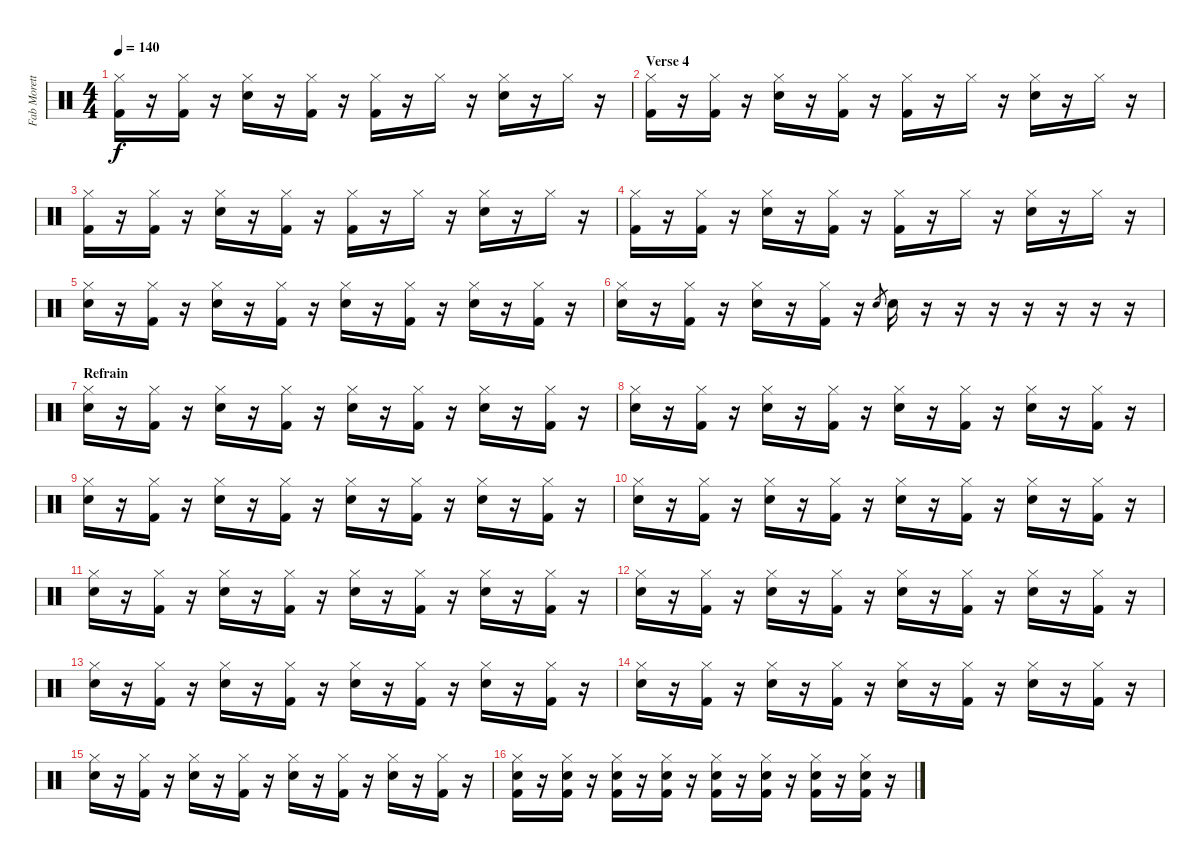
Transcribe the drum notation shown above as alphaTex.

\track ("Fab Moretti - Drums" "Fab Morett") {instrument percussion}
\staff {score}
\articulation defaults
\ts (4 4)
\tempo 140
\clef neutral
\ks c
("Hi-Hat (closed)" "Kick (hit) 2").16{dy f} r.16 ("Hi-Hat (closed)" "Kick (hit) 2").16 r.16 ("Hi-Hat (closed)" "Snare (hit) 2").16 r.16 ("Hi-Hat (closed)" "Kick (hit) 2").16 r.16 ("Hi-Hat (closed)" "Kick (hit) 2").16 r.16 "Hi-Hat (closed)".16 r.16 ("Hi-Hat (closed)" "Snare (hit) 2").16 r.16 "Hi-Hat (closed)".16 r.16 |
\section ("" "Verse 4")
("Hi-Hat (closed)" "Kick (hit) 2").16 r.16 ("Hi-Hat (closed)" "Kick (hit) 2").16 r.16 ("Hi-Hat (closed)" "Snare (hit) 2").16 r.16 ("Hi-Hat (closed)" "Kick (hit) 2").16 r.16 ("Hi-Hat (closed)" "Kick (hit) 2").16 r.16 "Hi-Hat (closed)".16 r.16 ("Hi-Hat (closed)" "Snare (hit) 2").16 r.16 "Hi-Hat (closed)".16 r.16 |
("Hi-Hat (closed)" "Kick (hit) 2").16 r.16 ("Hi-Hat (closed)" "Kick (hit) 2").16 r.16 ("Hi-Hat (closed)" "Snare (hit) 2").16 r.16 ("Hi-Hat (closed)" "Kick (hit) 2").16 r.16 ("Hi-Hat (closed)" "Kick (hit) 2").16 r.16 "Hi-Hat (closed)".16 r.16 ("Hi-Hat (closed)" "Snare (hit) 2").16 r.16 "Hi-Hat (closed)".16 r.16 |
("Hi-Hat (closed)" "Kick (hit) 2").16 r.16 ("Hi-Hat (closed)" "Kick (hit) 2").16 r.16 ("Hi-Hat (closed)" "Snare (hit) 2").16 r.16 ("Hi-Hat (closed)" "Kick (hit) 2").16 r.16 ("Hi-Hat (closed)" "Kick (hit) 2").16 r.16 "Hi-Hat (closed)".16 r.16 ("Hi-Hat (closed)" "Snare (hit) 2").16 r.16 "Hi-Hat (closed)".16 r.16 |
("Hi-Hat (closed)" "Snare (hit) 2").16 r.16 ("Hi-Hat (closed)" "Kick (hit) 2").16 r.16 ("Hi-Hat (closed)" "Snare (hit) 2").16 r.16 ("Hi-Hat (closed)" "Kick (hit) 2").16 r.16 ("Hi-Hat (closed)" "Snare (hit) 2").16 r.16 ("Hi-Hat (closed)" "Kick (hit) 2").16 r.16 ("Hi-Hat (closed)" "Snare (hit) 2").16 r.16 ("Hi-Hat (closed)" "Kick (hit) 2").16 r.16 |
("Hi-Hat (closed)" "Snare (hit) 2").16 r.16 ("Hi-Hat (closed)" "Kick (hit) 2").16 r.16 ("Hi-Hat (closed)" "Snare (hit) 2").16 r.16 ("Hi-Hat (closed)" "Kick (hit) 2").16 r.16 "Snare (hit) 2".8{gr} "Snare (hit) 2".16 r.16 r.16 r.16 r.16 r.16 r.16 r.16 |
\section ("" "Refrain")
("Hi-Hat (closed)" "Snare (hit) 2").16 r.16 ("Hi-Hat (closed)" "Kick (hit) 2").16 r.16 ("Hi-Hat (closed)" "Snare (hit) 2").16 r.16 ("Hi-Hat (closed)" "Kick (hit) 2").16 r.16 ("Hi-Hat (closed)" "Snare (hit) 2").16 r.16 ("Hi-Hat (closed)" "Kick (hit) 2").16 r.16 ("Hi-Hat (closed)" "Snare (hit) 2").16 r.16 ("Hi-Hat (closed)" "Kick (hit) 2").16 r.16 |
("Hi-Hat (closed)" "Snare (hit) 2").16 r.16 ("Hi-Hat (closed)" "Kick (hit) 2").16 r.16 ("Hi-Hat (closed)" "Snare (hit) 2").16 r.16 ("Hi-Hat (closed)" "Kick (hit) 2").16 r.16 ("Hi-Hat (closed)" "Snare (hit) 2").16 r.16 ("Hi-Hat (closed)" "Kick (hit) 2").16 r.16 ("Hi-Hat (closed)" "Snare (hit) 2").16 r.16 ("Hi-Hat (closed)" "Kick (hit) 2").16 r.16 |
("Hi-Hat (closed)" "Snare (hit) 2").16 r.16 ("Hi-Hat (closed)" "Kick (hit) 2").16 r.16 ("Hi-Hat (closed)" "Snare (hit) 2").16 r.16 ("Hi-Hat (closed)" "Kick (hit) 2").16 r.16 ("Hi-Hat (closed)" "Snare (hit) 2").16 r.16 ("Hi-Hat (closed)" "Kick (hit) 2").16 r.16 ("Hi-Hat (closed)" "Snare (hit) 2").16 r.16 ("Hi-Hat (closed)" "Kick (hit) 2").16 r.16 |
("Hi-Hat (closed)" "Snare (hit) 2").16 r.16 ("Hi-Hat (closed)" "Kick (hit) 2").16 r.16 ("Hi-Hat (closed)" "Snare (hit) 2").16 r.16 ("Hi-Hat (closed)" "Kick (hit) 2").16 r.16 ("Hi-Hat (closed)" "Snare (hit) 2").16 r.16 ("Hi-Hat (closed)" "Kick (hit) 2").16 r.16 ("Hi-Hat (closed)" "Snare (hit) 2").16 r.16 ("Hi-Hat (closed)" "Kick (hit) 2").16 r.16 |
("Hi-Hat (closed)" "Snare (hit) 2").16 r.16 ("Hi-Hat (closed)" "Kick (hit) 2").16 r.16 ("Hi-Hat (closed)" "Snare (hit) 2").16 r.16 ("Hi-Hat (closed)" "Kick (hit) 2").16 r.16 ("Hi-Hat (closed)" "Snare (hit) 2").16 r.16 ("Hi-Hat (closed)" "Kick (hit) 2").16 r.16 ("Hi-Hat (closed)" "Snare (hit) 2").16 r.16 ("Hi-Hat (closed)" "Kick (hit) 2").16 r.16 |
("Hi-Hat (closed)" "Snare (hit) 2").16 r.16 ("Hi-Hat (closed)" "Kick (hit) 2").16 r.16 ("Hi-Hat (closed)" "Snare (hit) 2").16 r.16 ("Hi-Hat (closed)" "Kick (hit) 2").16 r.16 ("Hi-Hat (closed)" "Snare (hit) 2").16 r.16 ("Hi-Hat (closed)" "Kick (hit) 2").16 r.16 ("Hi-Hat (closed)" "Snare (hit) 2").16 r.16 ("Hi-Hat (closed)" "Kick (hit) 2").16 r.16 |
("Hi-Hat (closed)" "Snare (hit) 2").16 r.16 ("Hi-Hat (closed)" "Kick (hit) 2").16 r.16 ("Hi-Hat (closed)" "Snare (hit) 2").16 r.16 ("Hi-Hat (closed)" "Kick (hit) 2").16 r.16 ("Hi-Hat (closed)" "Snare (hit) 2").16 r.16 ("Hi-Hat (closed)" "Kick (hit) 2").16 r.16 ("Hi-Hat (closed)" "Snare (hit) 2").16 r.16 ("Hi-Hat (closed)" "Kick (hit) 2").16 r.16 |
("Hi-Hat (closed)" "Snare (hit) 2").16 r.16 ("Hi-Hat (closed)" "Kick (hit) 2").16 r.16 ("Hi-Hat (closed)" "Snare (hit) 2").16 r.16 ("Hi-Hat (closed)" "Kick (hit) 2").16 r.16 ("Hi-Hat (closed)" "Snare (hit) 2").16 r.16 ("Hi-Hat (closed)" "Kick (hit) 2").16 r.16 ("Hi-Hat (closed)" "Snare (hit) 2").16 r.16 ("Hi-Hat (closed)" "Kick (hit) 2").16 r.16 |
("Hi-Hat (closed)" "Snare (hit) 2").16 r.16 ("Hi-Hat (closed)" "Kick (hit) 2").16 r.16 ("Hi-Hat (closed)" "Snare (hit) 2").16 r.16 ("Hi-Hat (closed)" "Kick (hit) 2").16 r.16 ("Hi-Hat (closed)" "Snare (hit) 2").16 r.16 ("Hi-Hat (closed)" "Kick (hit) 2").16 r.16 ("Hi-Hat (closed)" "Snare (hit) 2").16 r.16 ("Hi-Hat (closed)" "Kick (hit) 2").16 r.16 |
("Hi-Hat (closed)" "Snare (hit) 2" "Kick (hit) 2").16 r.16 ("Hi-Hat (closed)" "Snare (hit) 2" "Kick (hit) 2").16 r.16 ("Hi-Hat (closed)" "Snare (hit) 2" "Kick (hit) 2").16 r.16 ("Hi-Hat (closed)" "Snare (hit) 2" "Kick (hit) 2").16 r.16 ("Hi-Hat (closed)" "Snare (hit) 2" "Kick (hit) 2").16 r.16 ("Hi-Hat (closed)" "Snare (hit) 2" "Kick (hit) 2").16 r.16 ("Hi-Hat (closed)" "Snare (hit) 2" "Kick (hit) 2").16 r.16 ("Hi-Hat (closed)" "Snare (hit) 2" "Kick (hit) 2").16 r.16
